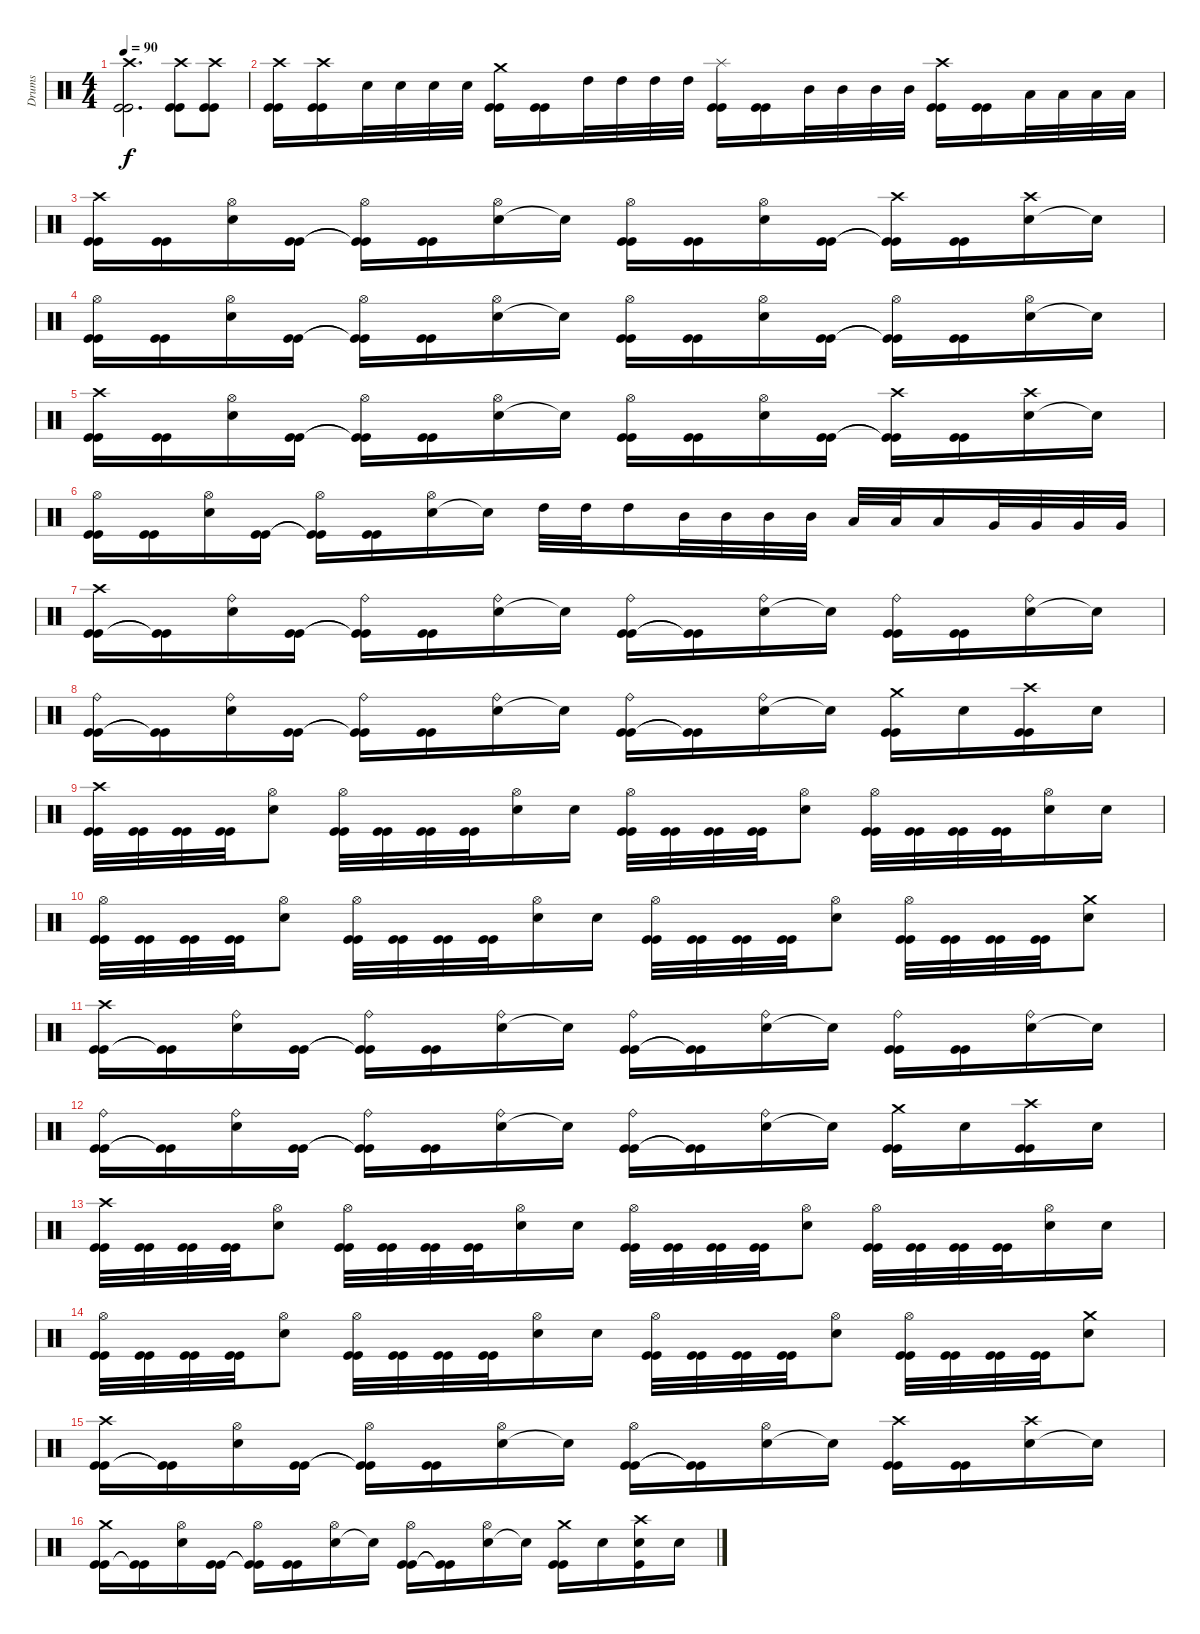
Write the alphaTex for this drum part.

\track ("Drums" "Drums") {instrument percussion}
\staff {score}
\articulation defaults
\ts (4 4)
\tempo 90
\clef neutral
\ks c
("Kick (hit)" "Kick (hit)" "Crash high (hit)").2{d dy f} ("Kick (hit)" "Crash high (hit)" "Kick (hit)").8 ("Kick (hit)" "Crash high (hit)" "Kick (hit)").8 |
("Kick (hit)" "Kick (hit)" "Crash high (hit)").16 ("Kick (hit)" "Kick (hit)" "Crash high (hit)").16 "Snare (hit) 2".32 "Snare (hit) 2".32 "Snare (hit) 2".32 "Snare (hit) 2".32 ("Kick (hit)" "Kick (hit)" "Crash medium (hit)").16 ("Kick (hit)" "Kick (hit)").16 "High Tom (hit)".32 "High Tom (hit)".32 "High Tom (hit)".32 "High Tom (hit)".32 ("Kick (hit)" "Kick (hit)" "Splash (hit)").16 ("Kick (hit)" "Kick (hit)").16 "Mid Tom (hit)".32 "Mid Tom (hit)".32 "Mid Tom (hit)".32 "Mid Tom (hit)".32 ("Kick (hit)" "Kick (hit)" "Crash high (hit)").16 ("Kick (hit)" "Kick (hit)").16 "Low Tom (hit)".32 "Low Tom (hit)".32 "Low Tom (hit)".32 "Low Tom (hit)".32 |
("Kick (hit)" "Kick (hit)" "Crash high (hit)").16 ("Kick (hit)" "Kick (hit)").16 ("Snare (hit) 2" "Hi-Hat (open)").16 ("Kick (hit)" "Kick (hit)").16 ("Kick (hit)"{t} "Kick (hit)"{t} "Hi-Hat (open)").16 ("Kick (hit)" "Kick (hit)").16 ("Snare (hit) 2" "Hi-Hat (open)").16 "Snare (hit) 2"{t}.16 ("Kick (hit)" "Kick (hit)" "Hi-Hat (open)").16 ("Kick (hit)" "Kick (hit)").16 ("Snare (hit) 2" "Hi-Hat (open)").16 ("Kick (hit)" "Kick (hit)").16 ("Kick (hit)"{t} "Kick (hit)"{t} "Crash high (hit)").16 ("Kick (hit)" "Kick (hit)").16 ("Snare (hit) 2" "Crash high (hit)").16 "Snare (hit) 2"{t}.16 |
("Kick (hit)" "Kick (hit)" "Hi-Hat (open)").16 ("Kick (hit)" "Kick (hit)").16 ("Snare (hit) 2" "Hi-Hat (open)").16 ("Kick (hit)" "Kick (hit)").16 ("Kick (hit)"{t} "Kick (hit)"{t} "Hi-Hat (open)").16 ("Kick (hit)" "Kick (hit)").16 ("Snare (hit) 2" "Hi-Hat (open)").16 "Snare (hit) 2"{t}.16 ("Kick (hit)" "Kick (hit)" "Hi-Hat (open)").16 ("Kick (hit)" "Kick (hit)").16 ("Snare (hit) 2" "Hi-Hat (open)").16 ("Kick (hit)" "Kick (hit)").16 ("Kick (hit)"{t} "Kick (hit)"{t} "Hi-Hat (open)").16 ("Kick (hit)" "Kick (hit)").16 ("Snare (hit) 2" "Hi-Hat (open)").16 "Snare (hit) 2"{t}.16 |
("Kick (hit)" "Kick (hit)" "Crash high (hit)").16 ("Kick (hit)" "Kick (hit)").16 ("Snare (hit) 2" "Hi-Hat (open)").16 ("Kick (hit)" "Kick (hit)").16 ("Kick (hit)"{t} "Kick (hit)"{t} "Hi-Hat (open)").16 ("Kick (hit)" "Kick (hit)").16 ("Snare (hit) 2" "Hi-Hat (open)").16 "Snare (hit) 2"{t}.16 ("Kick (hit)" "Kick (hit)" "Hi-Hat (open)").16 ("Kick (hit)" "Kick (hit)").16 ("Snare (hit) 2" "Hi-Hat (open)").16 ("Kick (hit)" "Kick (hit)").16 ("Kick (hit)"{t} "Kick (hit)"{t} "Crash high (hit)").16 ("Kick (hit)" "Kick (hit)").16 ("Snare (hit) 2" "Crash high (hit)").16 "Snare (hit) 2"{t}.16 |
("Kick (hit)" "Kick (hit)" "Hi-Hat (open)").16 ("Kick (hit)" "Kick (hit)").16 ("Snare (hit) 2" "Hi-Hat (open)").16 ("Kick (hit)" "Kick (hit)").16 ("Kick (hit)"{t} "Kick (hit)"{t} "Hi-Hat (open)").16 ("Kick (hit)" "Kick (hit)").16 ("Snare (hit) 2" "Hi-Hat (open)").16 "Snare (hit) 2"{t}.16 "High Tom (hit)".32 "High Tom (hit)".32 "High Tom (hit)".16 "Mid Tom (hit)".32 "Mid Tom (hit)".32 "Mid Tom (hit)".32 "Mid Tom (hit)".32 "Low Tom (hit)".32 "Low Tom (hit)".32 "Low Tom (hit)".16 "Very Low Tom (hit)".32 "Very Low Tom (hit)".32 "Very Low Tom (hit)".32 "Very Low Tom (hit)".32 |
("Kick (hit)" "Kick (hit)" "Crash high (hit)").16 ("Kick (hit)"{t} "Kick (hit)"{t}).16 ("Snare (hit) 2" "Ride (bell)").16 ("Kick (hit)" "Kick (hit)").16 ("Kick (hit)"{t} "Kick (hit)"{t} "Ride (bell)").16 ("Kick (hit)" "Kick (hit)").16 ("Snare (hit) 2" "Ride (bell)").16 "Snare (hit) 2"{t}.16 ("Kick (hit)" "Kick (hit)" "Ride (bell)").16 ("Kick (hit)"{t} "Kick (hit)"{t}).16 ("Snare (hit) 2" "Ride (bell)").16 "Snare (hit) 2"{t}.16 ("Kick (hit)" "Kick (hit)" "Ride (bell)").16 ("Kick (hit)" "Kick (hit)").16 ("Snare (hit) 2" "Ride (bell)").16 "Snare (hit) 2"{t}.16 |
("Kick (hit)" "Kick (hit)" "Ride (bell)").16 ("Kick (hit)"{t} "Kick (hit)"{t}).16 ("Snare (hit) 2" "Ride (bell)").16 ("Kick (hit)" "Kick (hit)").16 ("Kick (hit)"{t} "Kick (hit)"{t} "Ride (bell)").16 ("Kick (hit)" "Kick (hit)").16 ("Snare (hit) 2" "Ride (bell)").16 "Snare (hit) 2"{t}.16 ("Kick (hit)" "Kick (hit)" "Ride (bell)").16 ("Kick (hit)"{t} "Kick (hit)"{t}).16 ("Snare (hit) 2" "Ride (bell)").16 "Snare (hit) 2"{t}.16 ("Kick (hit)" "Kick (hit)" "Crash medium (hit)").16 "Snare (hit) 2".16 ("Kick (hit)" "Kick (hit)" "Crash high (hit)").16 "Snare (hit) 2".16 |
("Kick (hit)" "Kick (hit)" "Crash high (hit)").32 ("Kick (hit)" "Kick (hit)").32 ("Kick (hit)" "Kick (hit)").32 ("Kick (hit)" "Kick (hit)").32 ("Snare (hit) 2" "Hi-Hat (open)").8 ("Kick (hit)" "Kick (hit)" "Hi-Hat (open)").32 ("Kick (hit)" "Kick (hit)").32 ("Kick (hit)" "Kick (hit)").32 ("Kick (hit)" "Kick (hit)").32 ("Snare (hit) 2" "Hi-Hat (open)").16 "Snare (hit) 2".16 ("Kick (hit)" "Kick (hit)" "Hi-Hat (open)").32 ("Kick (hit)" "Kick (hit)").32 ("Kick (hit)" "Kick (hit)").32 ("Kick (hit)" "Kick (hit)").32 ("Snare (hit) 2" "Hi-Hat (open)").8 ("Kick (hit)" "Kick (hit)" "Hi-Hat (open)").32 ("Kick (hit)" "Kick (hit)").32 ("Kick (hit)" "Kick (hit)").32 ("Kick (hit)" "Kick (hit)").32 ("Snare (hit) 2" "Hi-Hat (open)").16 "Snare (hit) 2".16 |
("Kick (hit)" "Kick (hit)" "Hi-Hat (open)").32 ("Kick (hit)" "Kick (hit)").32 ("Kick (hit)" "Kick (hit)").32 ("Kick (hit)" "Kick (hit)").32 ("Snare (hit) 2" "Hi-Hat (open)").8 ("Kick (hit)" "Kick (hit)" "Hi-Hat (open)").32 ("Kick (hit)" "Kick (hit)").32 ("Kick (hit)" "Kick (hit)").32 ("Kick (hit)" "Kick (hit)").32 ("Snare (hit) 2" "Hi-Hat (open)").16 "Snare (hit) 2".16 ("Kick (hit)" "Kick (hit)" "Hi-Hat (open)").32 ("Kick (hit)" "Kick (hit)").32 ("Kick (hit)" "Kick (hit)").32 ("Kick (hit)" "Kick (hit)").32 ("Snare (hit) 2" "Hi-Hat (open)").8 ("Kick (hit)" "Kick (hit)" "Hi-Hat (open)").32 ("Kick (hit)" "Kick (hit)").32 ("Kick (hit)" "Kick (hit)").32 ("Kick (hit)" "Kick (hit)").32 ("Snare (hit) 2" "Crash medium (hit)").8 |
("Kick (hit)" "Kick (hit)" "Crash high (hit)").16 ("Kick (hit)"{t} "Kick (hit)"{t}).16 ("Snare (hit) 2" "Ride (bell)").16 ("Kick (hit)" "Kick (hit)").16 ("Kick (hit)"{t} "Kick (hit)"{t} "Ride (bell)").16 ("Kick (hit)" "Kick (hit)").16 ("Snare (hit) 2" "Ride (bell)").16 "Snare (hit) 2"{t}.16 ("Kick (hit)" "Kick (hit)" "Ride (bell)").16 ("Kick (hit)"{t} "Kick (hit)"{t}).16 ("Snare (hit) 2" "Ride (bell)").16 "Snare (hit) 2"{t}.16 ("Kick (hit)" "Kick (hit)" "Ride (bell)").16 ("Kick (hit)" "Kick (hit)").16 ("Snare (hit) 2" "Ride (bell)").16 "Snare (hit) 2"{t}.16 |
("Kick (hit)" "Kick (hit)" "Ride (bell)").16 ("Kick (hit)"{t} "Kick (hit)"{t}).16 ("Snare (hit) 2" "Ride (bell)").16 ("Kick (hit)" "Kick (hit)").16 ("Kick (hit)"{t} "Kick (hit)"{t} "Ride (bell)").16 ("Kick (hit)" "Kick (hit)").16 ("Snare (hit) 2" "Ride (bell)").16 "Snare (hit) 2"{t}.16 ("Kick (hit)" "Kick (hit)" "Ride (bell)").16 ("Kick (hit)"{t} "Kick (hit)"{t}).16 ("Snare (hit) 2" "Ride (bell)").16 "Snare (hit) 2"{t}.16 ("Kick (hit)" "Kick (hit)" "Crash medium (hit)").16 "Snare (hit) 2".16 ("Kick (hit)" "Kick (hit)" "Crash high (hit)").16 "Snare (hit) 2".16 |
("Kick (hit)" "Kick (hit)" "Crash high (hit)").32 ("Kick (hit)" "Kick (hit)").32 ("Kick (hit)" "Kick (hit)").32 ("Kick (hit)" "Kick (hit)").32 ("Snare (hit) 2" "Hi-Hat (open)").8 ("Kick (hit)" "Kick (hit)" "Hi-Hat (open)").32 ("Kick (hit)" "Kick (hit)").32 ("Kick (hit)" "Kick (hit)").32 ("Kick (hit)" "Kick (hit)").32 ("Snare (hit) 2" "Hi-Hat (open)").16 "Snare (hit) 2".16 ("Kick (hit)" "Kick (hit)" "Hi-Hat (open)").32 ("Kick (hit)" "Kick (hit)").32 ("Kick (hit)" "Kick (hit)").32 ("Kick (hit)" "Kick (hit)").32 ("Snare (hit) 2" "Hi-Hat (open)").8 ("Kick (hit)" "Kick (hit)" "Hi-Hat (open)").32 ("Kick (hit)" "Kick (hit)").32 ("Kick (hit)" "Kick (hit)").32 ("Kick (hit)" "Kick (hit)").32 ("Snare (hit) 2" "Hi-Hat (open)").16 "Snare (hit) 2".16 |
("Kick (hit)" "Kick (hit)" "Hi-Hat (open)").32 ("Kick (hit)" "Kick (hit)").32 ("Kick (hit)" "Kick (hit)").32 ("Kick (hit)" "Kick (hit)").32 ("Snare (hit) 2" "Hi-Hat (open)").8 ("Kick (hit)" "Kick (hit)" "Hi-Hat (open)").32 ("Kick (hit)" "Kick (hit)").32 ("Kick (hit)" "Kick (hit)").32 ("Kick (hit)" "Kick (hit)").32 ("Snare (hit) 2" "Hi-Hat (open)").16 "Snare (hit) 2".16 ("Kick (hit)" "Kick (hit)" "Hi-Hat (open)").32 ("Kick (hit)" "Kick (hit)").32 ("Kick (hit)" "Kick (hit)").32 ("Kick (hit)" "Kick (hit)").32 ("Snare (hit) 2" "Hi-Hat (open)").8 ("Kick (hit)" "Kick (hit)" "Hi-Hat (open)").32 ("Kick (hit)" "Kick (hit)").32 ("Kick (hit)" "Kick (hit)").32 ("Kick (hit)" "Kick (hit)").32 ("Snare (hit) 2" "Crash medium (hit)").8 |
("Kick (hit)" "Kick (hit)" "Crash high (hit)").16 ("Kick (hit)"{t} "Kick (hit)"{t}).16 ("Snare (hit) 2" "Hi-Hat (open)").16 ("Kick (hit)" "Kick (hit)").16 ("Kick (hit)"{t} "Kick (hit)"{t} "Hi-Hat (open)").16 ("Kick (hit)" "Kick (hit)").16 ("Snare (hit) 2" "Hi-Hat (open)").16 "Snare (hit) 2"{t}.16 ("Kick (hit)" "Kick (hit)" "Hi-Hat (open)").16 ("Kick (hit)"{t} "Kick (hit)"{t}).16 ("Snare (hit) 2" "Hi-Hat (open)").16 "Snare (hit) 2"{t}.16 ("Kick (hit)" "Kick (hit)" "Crash high (hit)").16 ("Kick (hit)" "Kick (hit)").16 ("Snare (hit) 2" "Crash high (hit)").16 "Snare (hit) 2"{t}.16 |
("Kick (hit)" "Kick (hit)" "Crash medium (hit)").16 ("Kick (hit)"{t} "Kick (hit)"{t}).16 ("Snare (hit) 2" "Hi-Hat (open)").16 ("Kick (hit)" "Kick (hit)").16 ("Kick (hit)"{t} "Kick (hit)"{t} "Hi-Hat (open)").16 ("Kick (hit)" "Kick (hit)").16 ("Snare (hit) 2" "Hi-Hat (open)").16 "Snare (hit) 2"{t}.16 ("Kick (hit)" "Kick (hit)" "Hi-Hat (open)").16 ("Kick (hit)"{t} "Kick (hit)"{t}).16 ("Snare (hit) 2" "Hi-Hat (open)").16 "Snare (hit) 2"{t}.16 ("Kick (hit)" "Kick (hit)" "Crash medium (hit)").16 "Snare (hit) 2".16 ("Kick (hit)" "Snare (hit) 2" "Crash high (hit)").16 "Snare (hit) 2".16
